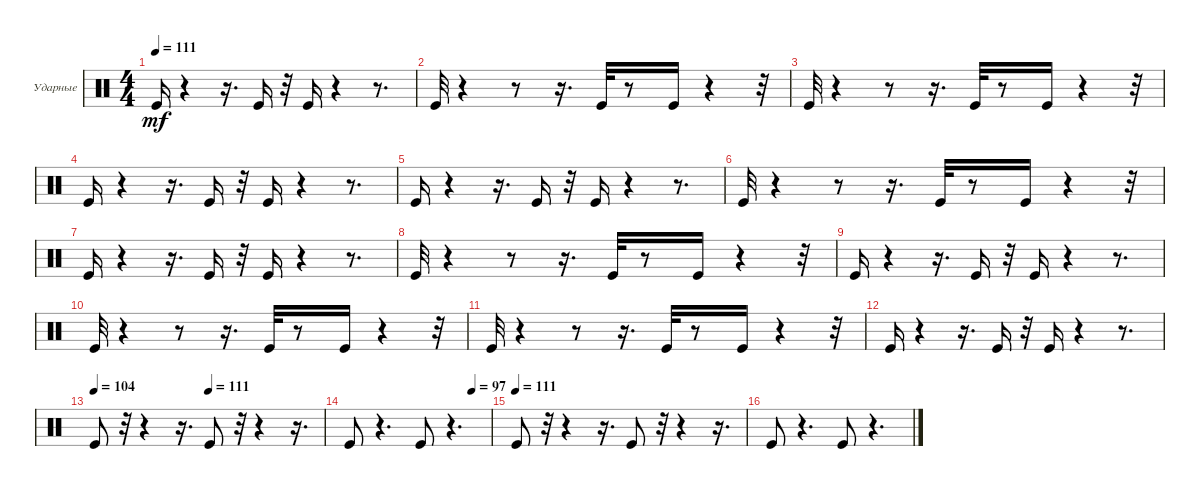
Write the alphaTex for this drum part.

\bracketExtendMode groupsimilarinstruments
\firstSystemTrackNameOrientation horizontal
\otherSystemsTrackNameOrientation horizontal
\track ("Ударные" "Ударные") {instrument percussion}
\staff {score}
\articulation defaults
\ts (4 4)
\tempo 111
\clef neutral
\ks c "Kick (hit)".16{dy mf}
r.4 r.16{d} "Kick (hit)".16 r.32 "Kick (hit)".16 r.4 r.8{d} |
"Kick (hit)".32 r.4 r.8 r.16{d} "Kick (hit)".32 r.8 "Kick (hit)".16 r.4 r.32 |
"Kick (hit)".32 r.4 r.8 r.16{d} "Kick (hit)".32 r.8 "Kick (hit)".16 r.4 r.32 |
"Kick (hit)".16 r.4 r.16{d} "Kick (hit)".16 r.32 "Kick (hit)".16 r.4 r.8{d} |
"Kick (hit)".16 r.4 r.16{d} "Kick (hit)".16 r.32 "Kick (hit)".16 r.4 r.8{d} |
"Kick (hit)".32 r.4 r.8 r.16{d} "Kick (hit)".32 r.8 "Kick (hit)".16 r.4 r.32 |
"Kick (hit)".16 r.4 r.16{d} "Kick (hit)".16 r.32 "Kick (hit)".16 r.4 r.8{d} |
"Kick (hit)".32 r.4 r.8 r.16{d} "Kick (hit)".32 r.8 "Kick (hit)".16 r.4 r.32 |
"Kick (hit)".16 r.4 r.16{d} "Kick (hit)".16 r.32 "Kick (hit)".16 r.4 r.8{d} |
"Kick (hit)".32 r.4 r.8 r.16{d} "Kick (hit)".32 r.8 "Kick (hit)".16 r.4 r.32 |
"Kick (hit)".32 r.4 r.8 r.16{d} "Kick (hit)".32 r.8 "Kick (hit)".16 r.4 r.32 |
"Kick (hit)".16 r.4 r.16{d} "Kick (hit)".16 r.32 "Kick (hit)".16 r.4 r.8{d} |
\tempo (104 0.0015625)
\tempo (111 0.5)
"Kick (hit)".8 r.32 r.4 r.16{d} "Kick (hit)".8 r.32 r.4 r.16{d} |
\tempo (97 0.869792)
"Kick (hit)".8 r.4{d} "Kick (hit)".8 r.4{d} |
\tempo (111)
"Kick (hit)".8 r.32 r.4 r.16{d} "Kick (hit)".8 r.32 r.4 r.16{d} |
"Kick (hit)".8 r.4{d} "Kick (hit)".8 r.4{d}
